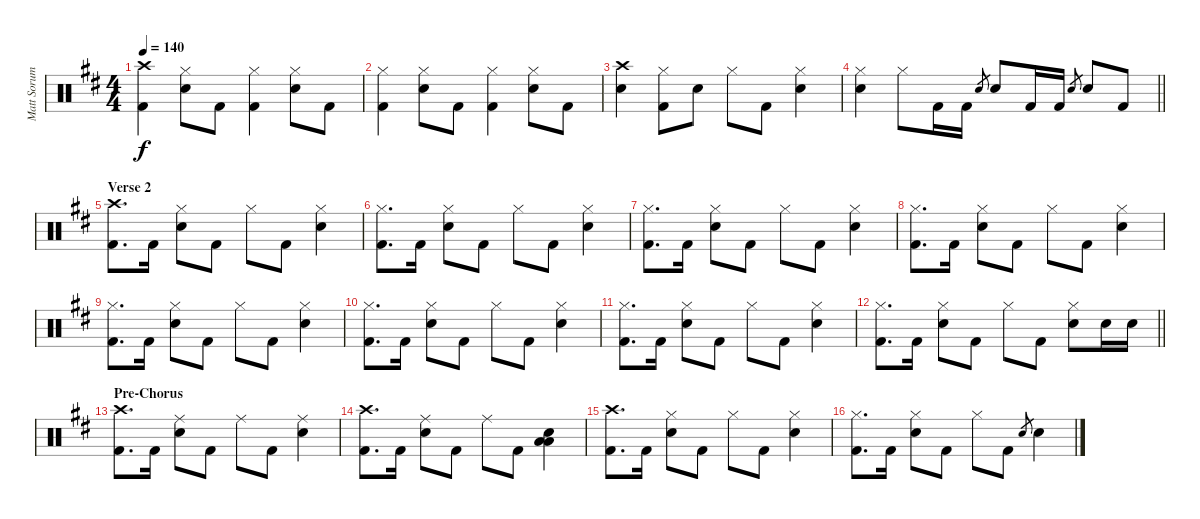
\track ("Matt Sorum - Drums" "Matt Sorum") {instrument percussion}
\staff {score}
\articulation defaults
\ts (4 4)
\tempo 140
\clef neutral
\ks d
("Crash high (hit)" "Kick (hit) 2").4{dy f} ("Hi-Hat (closed)" "Snare (hit) 2").8 "Kick (hit) 2".8 ("Hi-Hat (closed)" "Kick (hit) 2").4 ("Hi-Hat (closed)" "Snare (hit) 2").8 "Kick (hit) 2".8 |
("Hi-Hat (closed)" "Kick (hit) 2").4 ("Hi-Hat (closed)" "Snare (hit) 2").8 "Kick (hit) 2".8 ("Hi-Hat (closed)" "Kick (hit) 2").4 ("Hi-Hat (closed)" "Snare (hit) 2").8 "Kick (hit) 2".8 |
("Crash high (hit)" "Snare (hit) 2").4 ("Hi-Hat (closed)" "Kick (hit) 2").8 "Snare (hit) 2".8 "Hi-Hat (closed)".8 "Kick (hit) 2".8 ("Hi-Hat (closed)" "Snare (hit) 2").4 |
\barLineRight lightlight
("Hi-Hat (closed)" "Snare (hit) 2").4 "Hi-Hat (closed)".8 "Kick (hit) 2".16 "Kick (hit) 2".16 "Snare (hit) 2".8{gr} "Snare (hit) 2".8 "Kick (hit) 2".16 "Kick (hit) 2".16 "Snare (hit) 2".8{gr} "Snare (hit) 2".8 "Kick (hit) 2".8 |
\section ("" "Verse 2")
("Crash high (hit)" "Kick (hit) 2").8{d} "Kick (hit) 2".16 ("Hi-Hat (closed)" "Snare (hit) 2").8 "Kick (hit) 2".8 "Hi-Hat (closed)".8 "Kick (hit) 2".8 ("Hi-Hat (closed)" "Snare (hit) 2").4 |
("Hi-Hat (closed)" "Kick (hit) 2").8{d} "Kick (hit) 2".16 ("Hi-Hat (closed)" "Snare (hit) 2").8 "Kick (hit) 2".8 "Hi-Hat (closed)".8 "Kick (hit) 2".8 ("Hi-Hat (closed)" "Snare (hit) 2").4 |
("Hi-Hat (closed)" "Kick (hit) 2").8{d} "Kick (hit) 2".16 ("Hi-Hat (closed)" "Snare (hit) 2").8 "Kick (hit) 2".8 "Hi-Hat (closed)".8 "Kick (hit) 2".8 ("Hi-Hat (closed)" "Snare (hit) 2").4 |
("Hi-Hat (closed)" "Kick (hit) 2").8{d} "Kick (hit) 2".16 ("Hi-Hat (closed)" "Snare (hit) 2").8 "Kick (hit) 2".8 "Hi-Hat (closed)".8 "Kick (hit) 2".8 ("Hi-Hat (closed)" "Snare (hit) 2").4 |
("Hi-Hat (closed)" "Kick (hit) 2").8{d} "Kick (hit) 2".16 ("Hi-Hat (closed)" "Snare (hit) 2").8 "Kick (hit) 2".8 "Hi-Hat (closed)".8 "Kick (hit) 2".8 ("Hi-Hat (closed)" "Snare (hit) 2").4 |
("Hi-Hat (closed)" "Kick (hit) 2").8{d} "Kick (hit) 2".16 ("Hi-Hat (closed)" "Snare (hit) 2").8 "Kick (hit) 2".8 "Hi-Hat (closed)".8 "Kick (hit) 2".8 ("Hi-Hat (closed)" "Snare (hit) 2").4 |
("Hi-Hat (closed)" "Kick (hit) 2").8{d} "Kick (hit) 2".16 ("Hi-Hat (closed)" "Snare (hit) 2").8 "Kick (hit) 2".8 "Hi-Hat (closed)".8 "Kick (hit) 2".8 ("Hi-Hat (closed)" "Snare (hit) 2").4 |
\barLineRight lightlight
("Hi-Hat (closed)" "Kick (hit) 2").8{d} "Kick (hit) 2".16 ("Hi-Hat (closed)" "Snare (hit) 2").8 "Kick (hit) 2".8 "Hi-Hat (closed)".8 "Kick (hit) 2".8 ("Hi-Hat (closed)" "Snare (hit) 2").8 "Snare (hit) 2".16 "Snare (hit) 2".16 |
\section ("" "Pre-Chorus")
("Crash high (hit)" "Kick (hit) 2").8{d} "Kick (hit) 2".16 ("Ride (middle)" "Snare (hit) 2").8 "Kick (hit) 2".8 "Ride (middle)".8 "Kick (hit) 2".8 ("Ride (middle)" "Snare (hit) 2").4 |
("Crash high (hit)" "Kick (hit) 2").8{d} "Kick (hit) 2".16 ("Ride (middle)" "Snare (hit) 2").8 "Kick (hit) 2".8 "Ride (middle)".8 "Kick (hit) 2".8 ("Low Tom (hit)" "Low Tom (hit)" "Snare (hit) 2").4 |
("Crash high (hit)" "Kick (hit) 2").8{d} "Kick (hit) 2".16 ("Hi-Hat (closed)" "Snare (hit) 2").8 "Kick (hit) 2".8 "Hi-Hat (closed)".8 "Kick (hit) 2".8 ("Hi-Hat (closed)" "Snare (hit) 2").4 |
("Hi-Hat (closed)" "Kick (hit) 2").8{d} "Kick (hit) 2".16 ("Hi-Hat (closed)" "Snare (hit) 2").8 "Kick (hit) 2".8 "Hi-Hat (closed)".8 "Kick (hit) 2".8 "Snare (hit) 2".8{gr} "Snare (hit) 2".4
